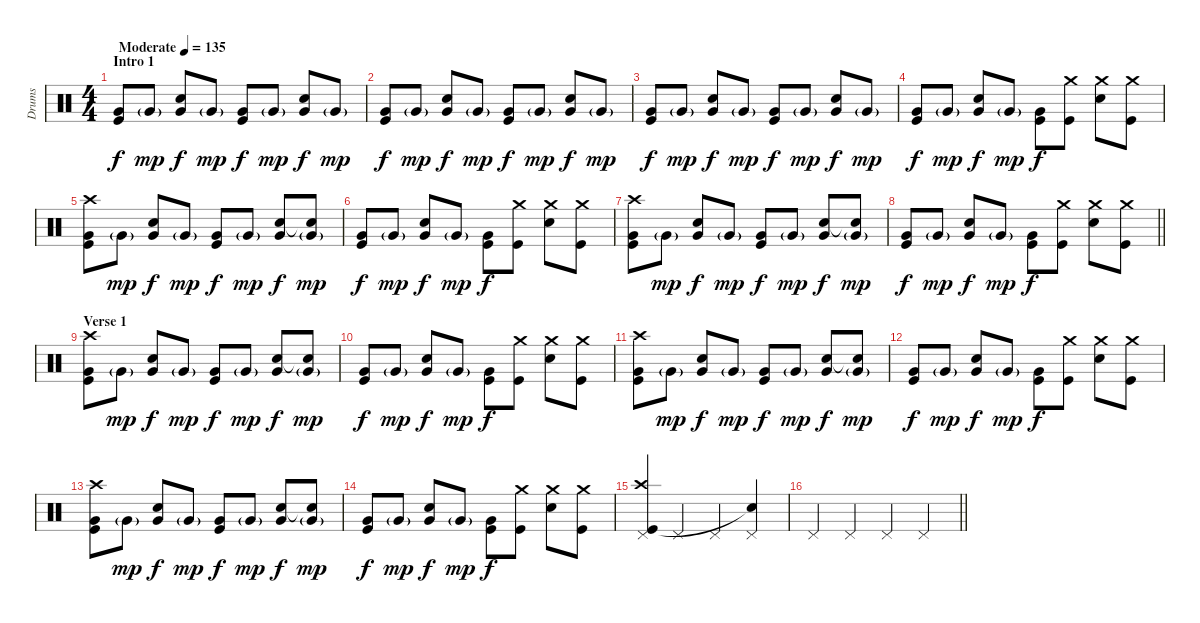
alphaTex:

\track ("Drums" "Drums") {instrument percussion}
\staff {score}
\articulation defaults
\ts (4 4)
\section ("" "Intro 1")
\tempo (135 "Moderate")
\clef neutral
\ks c
("Very Low Tom (hit)" "Kick (hit)").8{dy f} "Very Low Tom (hit)"{g}.8{dy mp} ("Very Low Tom (hit)" "Electric Snare (hit)").8{dy f} "Very Low Tom (hit)"{g}.8{dy mp} ("Very Low Tom (hit)" "Kick (hit)").8{dy f} "Very Low Tom (hit)"{g}.8{dy mp} ("Very Low Tom (hit)" "Electric Snare (hit)").8{dy f} "Very Low Tom (hit)"{g}.8{dy mp} |
("Very Low Tom (hit)" "Kick (hit)").8{dy f} "Very Low Tom (hit)"{g}.8{dy mp} ("Very Low Tom (hit)" "Electric Snare (hit)").8{dy f} "Very Low Tom (hit)"{g}.8{dy mp} ("Very Low Tom (hit)" "Kick (hit)").8{dy f} "Very Low Tom (hit)"{g}.8{dy mp} ("Very Low Tom (hit)" "Electric Snare (hit)").8{dy f} "Very Low Tom (hit)"{g}.8{dy mp} |
("Very Low Tom (hit)" "Kick (hit)").8{dy f} "Very Low Tom (hit)"{g}.8{dy mp} ("Very Low Tom (hit)" "Electric Snare (hit)").8{dy f} "Very Low Tom (hit)"{g}.8{dy mp} ("Very Low Tom (hit)" "Kick (hit)").8{dy f} "Very Low Tom (hit)"{g}.8{dy mp} ("Very Low Tom (hit)" "Electric Snare (hit)").8{dy f} "Very Low Tom (hit)"{g}.8{dy mp} |
("Very Low Tom (hit)" "Kick (hit)").8{dy f} "Very Low Tom (hit)"{g}.8{dy mp} ("Very Low Tom (hit)" "Electric Snare (hit)").8{dy f} "Very Low Tom (hit)"{g}.8{dy mp} ("Very Low Tom (hit)" "Kick (hit)").8{dy f} ("Kick (hit)" "Crash medium (hit)").8 ("Electric Snare (hit)" "Crash medium (hit)").8 ("Kick (hit)" "Crash medium (hit)").8 |
("Very Low Tom (hit)" "Kick (hit)" "Crash high (hit)").8 "Very Low Tom (hit)"{g}.8{dy mp} ("Very Low Tom (hit)" "Electric Snare (hit)").8{dy f} "Very Low Tom (hit)"{g}.8{dy mp} ("Very Low Tom (hit)" "Kick (hit)").8{dy f} "Very Low Tom (hit)"{g}.8{dy mp} ("Very Low Tom (hit)" "Electric Snare (hit)").8{dy f} ("Very Low Tom (hit)"{g} "Snare (hit)"{t}).8{dy mp} |
("Very Low Tom (hit)" "Kick (hit)").8{dy f} "Very Low Tom (hit)"{g}.8{dy mp} ("Very Low Tom (hit)" "Electric Snare (hit)").8{dy f} "Very Low Tom (hit)"{g}.8{dy mp} ("Very Low Tom (hit)" "Kick (hit)").8{dy f} ("Kick (hit)" "Crash medium (hit)").8 ("Electric Snare (hit)" "Crash medium (hit)").8 ("Kick (hit)" "Crash medium (hit)").8 |
("Very Low Tom (hit)" "Kick (hit)" "Crash high (hit)").8 "Very Low Tom (hit)"{g}.8{dy mp} ("Very Low Tom (hit)" "Electric Snare (hit)").8{dy f} "Very Low Tom (hit)"{g}.8{dy mp} ("Very Low Tom (hit)" "Kick (hit)").8{dy f} "Very Low Tom (hit)"{g}.8{dy mp} ("Very Low Tom (hit)" "Electric Snare (hit)").8{dy f} ("Very Low Tom (hit)"{g} "Snare (hit)"{t}).8{dy mp} |
\barLineRight lightlight
("Very Low Tom (hit)" "Kick (hit)").8{dy f} "Very Low Tom (hit)"{g}.8{dy mp} ("Very Low Tom (hit)" "Electric Snare (hit)").8{dy f} "Very Low Tom (hit)"{g}.8{dy mp} ("Very Low Tom (hit)" "Kick (hit)").8{dy f} ("Kick (hit)" "Crash medium (hit)").8 ("Electric Snare (hit)" "Crash medium (hit)").8 ("Kick (hit)" "Crash medium (hit)").8 |
\section ("" "Verse 1")
("Very Low Tom (hit)" "Kick (hit)" "Crash high (hit)").8 "Very Low Tom (hit)"{g}.8{dy mp} ("Very Low Tom (hit)" "Electric Snare (hit)").8{dy f} "Very Low Tom (hit)"{g}.8{dy mp} ("Very Low Tom (hit)" "Kick (hit)").8{dy f} "Very Low Tom (hit)"{g}.8{dy mp} ("Very Low Tom (hit)" "Electric Snare (hit)").8{dy f} ("Very Low Tom (hit)"{g} "Snare (hit)"{t}).8{dy mp} |
("Very Low Tom (hit)" "Kick (hit)").8{dy f} "Very Low Tom (hit)"{g}.8{dy mp} ("Very Low Tom (hit)" "Electric Snare (hit)").8{dy f} "Very Low Tom (hit)"{g}.8{dy mp} ("Very Low Tom (hit)" "Kick (hit)").8{dy f} ("Kick (hit)" "Crash medium (hit)").8 ("Electric Snare (hit)" "Crash medium (hit)").8 ("Kick (hit)" "Crash medium (hit)").8 |
("Very Low Tom (hit)" "Kick (hit)" "Crash high (hit)").8 "Very Low Tom (hit)"{g}.8{dy mp} ("Very Low Tom (hit)" "Electric Snare (hit)").8{dy f} "Very Low Tom (hit)"{g}.8{dy mp} ("Very Low Tom (hit)" "Kick (hit)").8{dy f} "Very Low Tom (hit)"{g}.8{dy mp} ("Very Low Tom (hit)" "Electric Snare (hit)").8{dy f} ("Very Low Tom (hit)"{g} "Snare (hit)"{t}).8{dy mp} |
("Very Low Tom (hit)" "Kick (hit)").8{dy f} "Very Low Tom (hit)"{g}.8{dy mp} ("Very Low Tom (hit)" "Electric Snare (hit)").8{dy f} "Very Low Tom (hit)"{g}.8{dy mp} ("Very Low Tom (hit)" "Kick (hit)").8{dy f} ("Kick (hit)" "Crash medium (hit)").8 ("Electric Snare (hit)" "Crash medium (hit)").8 ("Kick (hit)" "Crash medium (hit)").8 |
("Very Low Tom (hit)" "Kick (hit)" "Crash high (hit)").8 "Very Low Tom (hit)"{g}.8{dy mp} ("Very Low Tom (hit)" "Electric Snare (hit)").8{dy f} "Very Low Tom (hit)"{g}.8{dy mp} ("Very Low Tom (hit)" "Kick (hit)").8{dy f} "Very Low Tom (hit)"{g}.8{dy mp} ("Very Low Tom (hit)" "Electric Snare (hit)").8{dy f} ("Very Low Tom (hit)"{g} "Snare (hit)"{t}).8{dy mp} |
("Very Low Tom (hit)" "Kick (hit)").8{dy f} "Very Low Tom (hit)"{g}.8{dy mp} ("Very Low Tom (hit)" "Electric Snare (hit)").8{dy f} "Very Low Tom (hit)"{g}.8{dy mp} ("Very Low Tom (hit)" "Kick (hit)").8{dy f} ("Kick (hit)" "Crash medium (hit)").8 ("Electric Snare (hit)" "Crash medium (hit)").8 ("Kick (hit)" "Crash medium (hit)").8 |
("Pedal Hi-Hat (hit)" "Kick (hit)" "Crash high (hit)").4 "Pedal Hi-Hat (hit)".4 "Pedal Hi-Hat (hit)".4 ("Pedal Hi-Hat (hit)" "Snare (hit)"{t}).4 |
\barLineRight lightlight "Pedal Hi-Hat (hit)".4 "Pedal Hi-Hat (hit)".4 "Pedal Hi-Hat (hit)".4 "Pedal Hi-Hat (hit)".4
